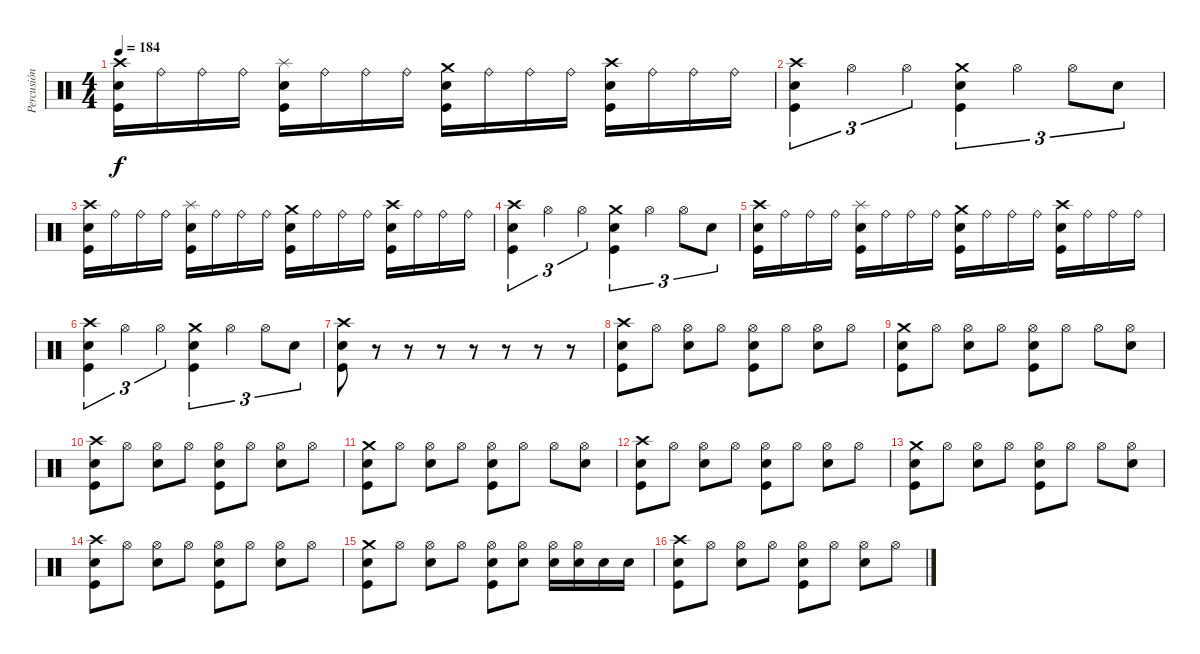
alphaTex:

\track ("Percusión" "Percusión") {instrument percussion}
\staff {score}
\articulation defaults
\ts (4 4)
\tempo 184
\clef neutral
\ks c
("Crash high (hit)" "Electric Snare (hit)" "Kick (hit)").16{dy f} "Ride (bell)".16 "Ride (bell)".16 "Ride (bell)".16 ("Splash (hit)" "Electric Snare (hit)" "Kick (hit)").16 "Ride (bell)".16 "Ride (bell)".16 "Ride (bell)".16 ("Crash medium (hit)" "Electric Snare (hit)" "Kick (hit)").16 "Ride (bell)".16 "Ride (bell)".16 "Ride (bell)".16 ("Crash high (hit)" "Electric Snare (hit)" "Kick (hit)").16 "Ride (bell)".16 "Ride (bell)".16 "Ride (bell)".16 |
("Crash high (hit)" "Electric Snare (hit)" "Kick (hit)").4{tu (3 2)} "Hi-Hat (open)".4{tu (3 2)} "Hi-Hat (open)".4{tu (3 2)} ("Crash medium (hit)" "Electric Snare (hit)" "Kick (hit)").4{tu (3 2)} "Hi-Hat (open)".4{tu (3 2)} "Hi-Hat (open)".8{tu (3 2)} "Electric Snare (hit)".8{tu (3 2)} |
("Crash high (hit)" "Electric Snare (hit)" "Kick (hit)").16 "Ride (bell)".16 "Ride (bell)".16 "Ride (bell)".16 ("Splash (hit)" "Electric Snare (hit)" "Kick (hit)").16 "Ride (bell)".16 "Ride (bell)".16 "Ride (bell)".16 ("Crash medium (hit)" "Electric Snare (hit)" "Kick (hit)").16 "Ride (bell)".16 "Ride (bell)".16 "Ride (bell)".16 ("Crash high (hit)" "Electric Snare (hit)" "Kick (hit)").16 "Ride (bell)".16 "Ride (bell)".16 "Ride (bell)".16 |
("Crash high (hit)" "Electric Snare (hit)" "Kick (hit)").4{tu (3 2)} "Hi-Hat (open)".4{tu (3 2)} "Hi-Hat (open)".4{tu (3 2)} ("Crash medium (hit)" "Electric Snare (hit)" "Kick (hit)").4{tu (3 2)} "Hi-Hat (open)".4{tu (3 2)} "Hi-Hat (open)".8{tu (3 2)} "Electric Snare (hit)".8{tu (3 2)} |
("Crash high (hit)" "Electric Snare (hit)" "Kick (hit)").16 "Ride (bell)".16 "Ride (bell)".16 "Ride (bell)".16 ("Splash (hit)" "Electric Snare (hit)" "Kick (hit)").16 "Ride (bell)".16 "Ride (bell)".16 "Ride (bell)".16 ("Crash medium (hit)" "Electric Snare (hit)" "Kick (hit)").16 "Ride (bell)".16 "Ride (bell)".16 "Ride (bell)".16 ("Crash high (hit)" "Electric Snare (hit)" "Kick (hit)").16 "Ride (bell)".16 "Ride (bell)".16 "Ride (bell)".16 |
("Crash high (hit)" "Electric Snare (hit)" "Kick (hit)").4{tu (3 2)} "Hi-Hat (open)".4{tu (3 2)} "Hi-Hat (open)".4{tu (3 2)} ("Crash medium (hit)" "Electric Snare (hit)" "Kick (hit)").4{tu (3 2)} "Hi-Hat (open)".4{tu (3 2)} "Hi-Hat (open)".8{tu (3 2)} "Electric Snare (hit)".8{tu (3 2)} |
("Crash high (hit)" "Electric Snare (hit)" "Kick (hit)").8 r.8 r.8 r.8 r.8 r.8 r.8 r.8 |
("Crash high (hit)" "Electric Snare (hit)" "Kick (hit)").8 "Hi-Hat (open)".8 ("Hi-Hat (open)" "Electric Snare (hit)").8 "Hi-Hat (open)".8 ("Hi-Hat (open)" "Electric Snare (hit)" "Kick (hit)").8 "Hi-Hat (open)".8 ("Hi-Hat (open)" "Electric Snare (hit)").8 "Hi-Hat (open)".8 |
("Crash medium (hit)" "Electric Snare (hit)" "Kick (hit)").8 "Hi-Hat (open)".8 ("Hi-Hat (open)" "Electric Snare (hit)").8 "Hi-Hat (open)".8 ("Hi-Hat (open)" "Electric Snare (hit)" "Kick (hit)").8 "Hi-Hat (open)".8 "Hi-Hat (open)".8 ("Hi-Hat (open)" "Electric Snare (hit)").8 |
("Crash high (hit)" "Electric Snare (hit)" "Kick (hit)").8 "Hi-Hat (open)".8 ("Hi-Hat (open)" "Electric Snare (hit)").8 "Hi-Hat (open)".8 ("Hi-Hat (open)" "Electric Snare (hit)" "Kick (hit)").8 "Hi-Hat (open)".8 ("Hi-Hat (open)" "Electric Snare (hit)").8 "Hi-Hat (open)".8 |
("Crash medium (hit)" "Electric Snare (hit)" "Kick (hit)").8 "Hi-Hat (open)".8 ("Hi-Hat (open)" "Electric Snare (hit)").8 "Hi-Hat (open)".8 ("Hi-Hat (open)" "Electric Snare (hit)" "Kick (hit)").8 "Hi-Hat (open)".8 "Hi-Hat (open)".8 ("Hi-Hat (open)" "Electric Snare (hit)").8 |
("Crash high (hit)" "Electric Snare (hit)" "Kick (hit)").8 "Hi-Hat (open)".8 ("Hi-Hat (open)" "Electric Snare (hit)").8 "Hi-Hat (open)".8 ("Hi-Hat (open)" "Electric Snare (hit)" "Kick (hit)").8 "Hi-Hat (open)".8 ("Hi-Hat (open)" "Electric Snare (hit)").8 "Hi-Hat (open)".8 |
("Crash medium (hit)" "Electric Snare (hit)" "Kick (hit)").8 "Hi-Hat (open)".8 ("Hi-Hat (open)" "Electric Snare (hit)").8 "Hi-Hat (open)".8 ("Hi-Hat (open)" "Electric Snare (hit)" "Kick (hit)").8 "Hi-Hat (open)".8 "Hi-Hat (open)".8 ("Hi-Hat (open)" "Electric Snare (hit)").8 |
("Crash high (hit)" "Electric Snare (hit)" "Kick (hit)").8 "Hi-Hat (open)".8 ("Hi-Hat (open)" "Electric Snare (hit)").8 "Hi-Hat (open)".8 ("Hi-Hat (open)" "Electric Snare (hit)" "Kick (hit)").8 "Hi-Hat (open)".8 ("Hi-Hat (open)" "Electric Snare (hit)").8 "Hi-Hat (open)".8 |
("Crash medium (hit)" "Electric Snare (hit)" "Kick (hit)").8 "Hi-Hat (open)".8 ("Hi-Hat (open)" "Electric Snare (hit)").8 "Hi-Hat (open)".8 ("Hi-Hat (open)" "Electric Snare (hit)" "Kick (hit)").8 ("Hi-Hat (open)" "Electric Snare (hit)").8 ("Hi-Hat (open)" "Electric Snare (hit)").16 ("Hi-Hat (open)" "Electric Snare (hit)").16 "Electric Snare (hit)".16 "Electric Snare (hit)".16 |
("Crash high (hit)" "Electric Snare (hit)" "Kick (hit)").8 "Hi-Hat (open)".8 ("Hi-Hat (open)" "Electric Snare (hit)").8 "Hi-Hat (open)".8 ("Hi-Hat (open)" "Electric Snare (hit)" "Kick (hit)").8 "Hi-Hat (open)".8 ("Hi-Hat (open)" "Electric Snare (hit)").8 "Hi-Hat (open)".8
